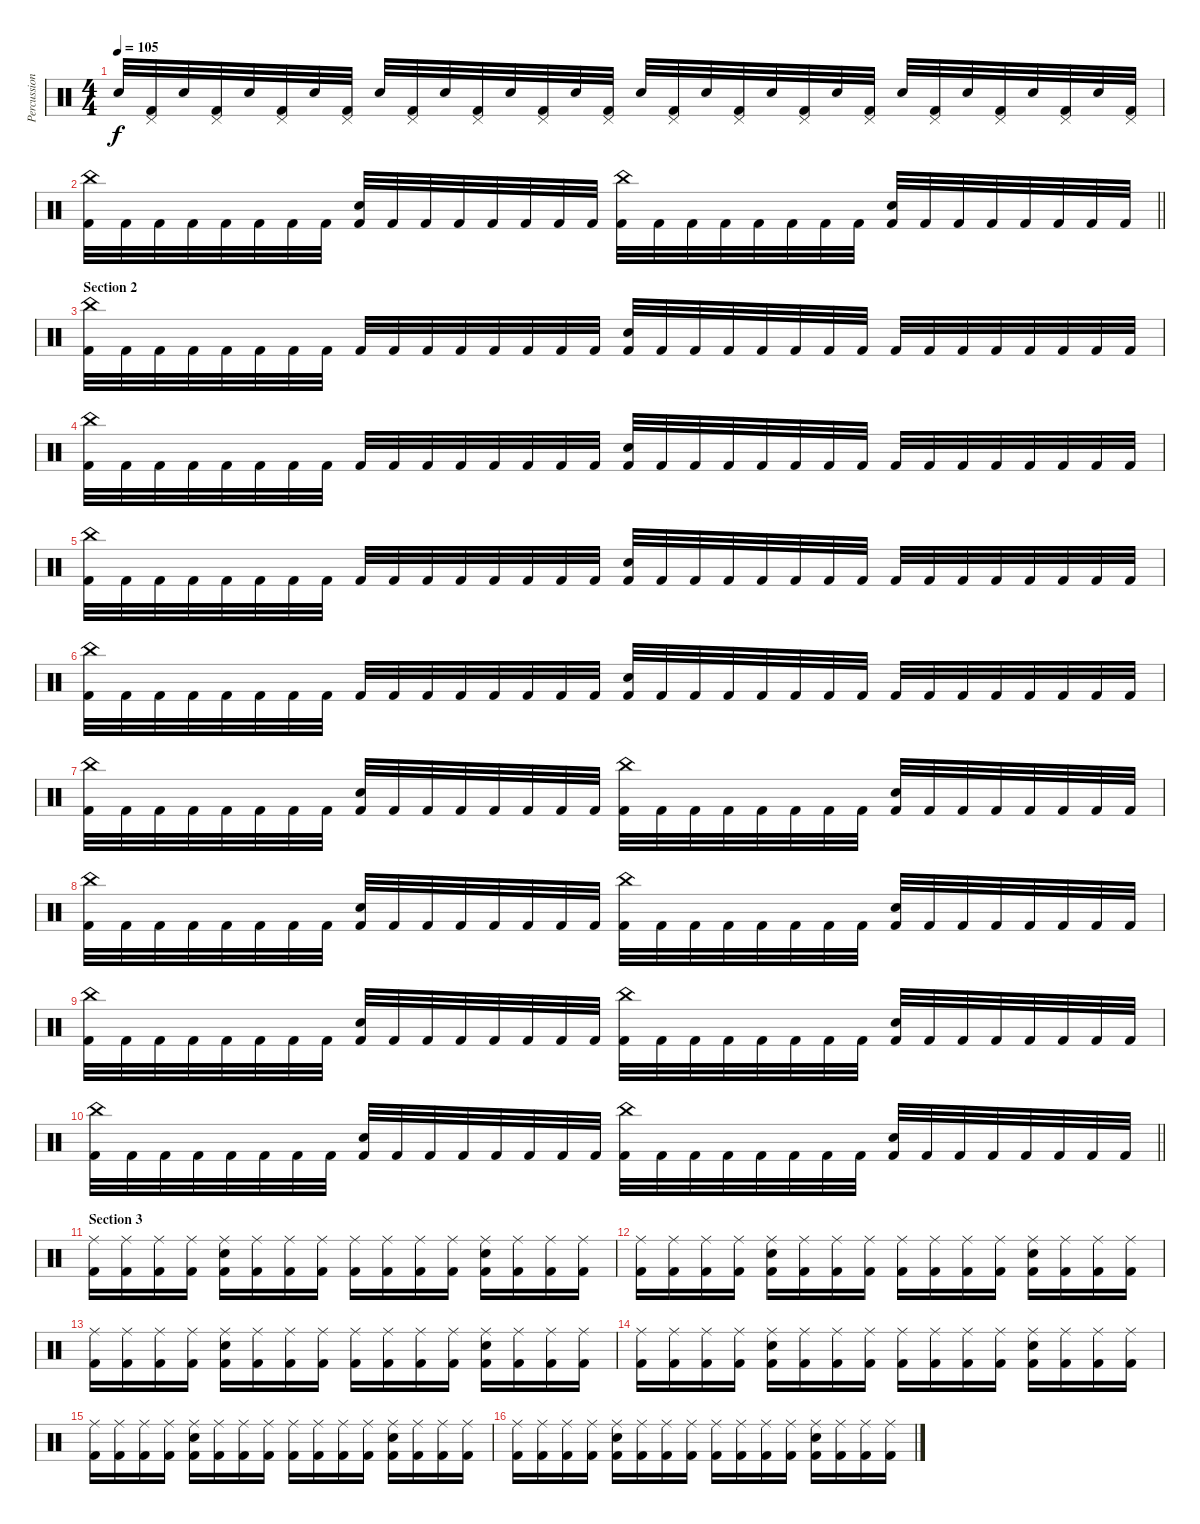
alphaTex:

\track ("Percussions" "Percussion") {instrument percussion}
\staff {score}
\articulation defaults
\ts (4 4)
\tempo 105
\clef neutral
\ks c "Electric Snare (hit)".32{dy f}
("Pedal Hi-Hat (hit)" "Kick (hit) 2").32 "Electric Snare (hit)".32 ("Pedal Hi-Hat (hit)" "Kick (hit) 2").32 "Electric Snare (hit)".32 ("Pedal Hi-Hat (hit)" "Kick (hit) 2").32 "Electric Snare (hit)".32 ("Pedal Hi-Hat (hit)" "Kick (hit) 2").32 "Electric Snare (hit)".32 ("Pedal Hi-Hat (hit)" "Kick (hit) 2").32 "Electric Snare (hit)".32 ("Pedal Hi-Hat (hit)" "Kick (hit) 2").32 "Electric Snare (hit)".32 ("Pedal Hi-Hat (hit)" "Kick (hit) 2").32 "Electric Snare (hit)".32 ("Pedal Hi-Hat (hit)" "Kick (hit) 2").32 "Electric Snare (hit)".32 ("Pedal Hi-Hat (hit)" "Kick (hit) 2").32 "Electric Snare (hit)".32 ("Pedal Hi-Hat (hit)" "Kick (hit) 2").32 "Electric Snare (hit)".32 ("Pedal Hi-Hat (hit)" "Kick (hit) 2").32 "Electric Snare (hit)".32 ("Pedal Hi-Hat (hit)" "Kick (hit) 2").32 "Electric Snare (hit)".32 ("Pedal Hi-Hat (hit)" "Kick (hit) 2").32 "Electric Snare (hit)".32 ("Pedal Hi-Hat (hit)" "Kick (hit) 2").32 "Electric Snare (hit)".32 ("Pedal Hi-Hat (hit)" "Kick (hit) 2").32 "Electric Snare (hit)".32 ("Pedal Hi-Hat (hit)" "Kick (hit) 2").32 |
\barLineRight lightlight
("China (hit)" "Kick (hit) 2").32 "Kick (hit) 2".32 "Kick (hit) 2".32 "Kick (hit) 2".32 "Kick (hit) 2".32 "Kick (hit) 2".32 "Kick (hit) 2".32 "Kick (hit) 2".32 ("Electric Snare (hit)" "Kick (hit) 2").32 "Kick (hit) 2".32 "Kick (hit) 2".32 "Kick (hit) 2".32 "Kick (hit) 2".32 "Kick (hit) 2".32 "Kick (hit) 2".32 "Kick (hit) 2".32 ("China (hit)" "Kick (hit) 2").32 "Kick (hit) 2".32 "Kick (hit) 2".32 "Kick (hit) 2".32 "Kick (hit) 2".32 "Kick (hit) 2".32 "Kick (hit) 2".32 "Kick (hit) 2".32 ("Electric Snare (hit)" "Kick (hit) 2").32 "Kick (hit) 2".32 "Kick (hit) 2".32 "Kick (hit) 2".32 "Kick (hit) 2".32 "Kick (hit) 2".32 "Kick (hit) 2".32 "Kick (hit) 2".32 |
\section ("" "Section 2")
("China (hit)" "Kick (hit) 2").32 "Kick (hit) 2".32 "Kick (hit) 2".32 "Kick (hit) 2".32 "Kick (hit) 2".32 "Kick (hit) 2".32 "Kick (hit) 2".32 "Kick (hit) 2".32 "Kick (hit) 2".32 "Kick (hit) 2".32 "Kick (hit) 2".32 "Kick (hit) 2".32 "Kick (hit) 2".32 "Kick (hit) 2".32 "Kick (hit) 2".32 "Kick (hit) 2".32 ("Electric Snare (hit)" "Kick (hit) 2").32 "Kick (hit) 2".32 "Kick (hit) 2".32 "Kick (hit) 2".32 "Kick (hit) 2".32 "Kick (hit) 2".32 "Kick (hit) 2".32 "Kick (hit) 2".32 "Kick (hit) 2".32 "Kick (hit) 2".32 "Kick (hit) 2".32 "Kick (hit) 2".32 "Kick (hit) 2".32 "Kick (hit) 2".32 "Kick (hit) 2".32 "Kick (hit) 2".32 |
("China (hit)" "Kick (hit) 2").32 "Kick (hit) 2".32 "Kick (hit) 2".32 "Kick (hit) 2".32 "Kick (hit) 2".32 "Kick (hit) 2".32 "Kick (hit) 2".32 "Kick (hit) 2".32 "Kick (hit) 2".32 "Kick (hit) 2".32 "Kick (hit) 2".32 "Kick (hit) 2".32 "Kick (hit) 2".32 "Kick (hit) 2".32 "Kick (hit) 2".32 "Kick (hit) 2".32 ("Electric Snare (hit)" "Kick (hit) 2").32 "Kick (hit) 2".32 "Kick (hit) 2".32 "Kick (hit) 2".32 "Kick (hit) 2".32 "Kick (hit) 2".32 "Kick (hit) 2".32 "Kick (hit) 2".32 "Kick (hit) 2".32 "Kick (hit) 2".32 "Kick (hit) 2".32 "Kick (hit) 2".32 "Kick (hit) 2".32 "Kick (hit) 2".32 "Kick (hit) 2".32 "Kick (hit) 2".32 |
("China (hit)" "Kick (hit) 2").32 "Kick (hit) 2".32 "Kick (hit) 2".32 "Kick (hit) 2".32 "Kick (hit) 2".32 "Kick (hit) 2".32 "Kick (hit) 2".32 "Kick (hit) 2".32 "Kick (hit) 2".32 "Kick (hit) 2".32 "Kick (hit) 2".32 "Kick (hit) 2".32 "Kick (hit) 2".32 "Kick (hit) 2".32 "Kick (hit) 2".32 "Kick (hit) 2".32 ("Electric Snare (hit)" "Kick (hit) 2").32 "Kick (hit) 2".32 "Kick (hit) 2".32 "Kick (hit) 2".32 "Kick (hit) 2".32 "Kick (hit) 2".32 "Kick (hit) 2".32 "Kick (hit) 2".32 "Kick (hit) 2".32 "Kick (hit) 2".32 "Kick (hit) 2".32 "Kick (hit) 2".32 "Kick (hit) 2".32 "Kick (hit) 2".32 "Kick (hit) 2".32 "Kick (hit) 2".32 |
("China (hit)" "Kick (hit) 2").32 "Kick (hit) 2".32 "Kick (hit) 2".32 "Kick (hit) 2".32 "Kick (hit) 2".32 "Kick (hit) 2".32 "Kick (hit) 2".32 "Kick (hit) 2".32 "Kick (hit) 2".32 "Kick (hit) 2".32 "Kick (hit) 2".32 "Kick (hit) 2".32 "Kick (hit) 2".32 "Kick (hit) 2".32 "Kick (hit) 2".32 "Kick (hit) 2".32 ("Electric Snare (hit)" "Kick (hit) 2").32 "Kick (hit) 2".32 "Kick (hit) 2".32 "Kick (hit) 2".32 "Kick (hit) 2".32 "Kick (hit) 2".32 "Kick (hit) 2".32 "Kick (hit) 2".32 "Kick (hit) 2".32 "Kick (hit) 2".32 "Kick (hit) 2".32 "Kick (hit) 2".32 "Kick (hit) 2".32 "Kick (hit) 2".32 "Kick (hit) 2".32 "Kick (hit) 2".32 |
("China (hit)" "Kick (hit) 2").32 "Kick (hit) 2".32 "Kick (hit) 2".32 "Kick (hit) 2".32 "Kick (hit) 2".32 "Kick (hit) 2".32 "Kick (hit) 2".32 "Kick (hit) 2".32 ("Electric Snare (hit)" "Kick (hit) 2").32 "Kick (hit) 2".32 "Kick (hit) 2".32 "Kick (hit) 2".32 "Kick (hit) 2".32 "Kick (hit) 2".32 "Kick (hit) 2".32 "Kick (hit) 2".32 ("China (hit)" "Kick (hit) 2").32 "Kick (hit) 2".32 "Kick (hit) 2".32 "Kick (hit) 2".32 "Kick (hit) 2".32 "Kick (hit) 2".32 "Kick (hit) 2".32 "Kick (hit) 2".32 ("Electric Snare (hit)" "Kick (hit) 2").32 "Kick (hit) 2".32 "Kick (hit) 2".32 "Kick (hit) 2".32 "Kick (hit) 2".32 "Kick (hit) 2".32 "Kick (hit) 2".32 "Kick (hit) 2".32 |
("China (hit)" "Kick (hit) 2").32 "Kick (hit) 2".32 "Kick (hit) 2".32 "Kick (hit) 2".32 "Kick (hit) 2".32 "Kick (hit) 2".32 "Kick (hit) 2".32 "Kick (hit) 2".32 ("Electric Snare (hit)" "Kick (hit) 2").32 "Kick (hit) 2".32 "Kick (hit) 2".32 "Kick (hit) 2".32 "Kick (hit) 2".32 "Kick (hit) 2".32 "Kick (hit) 2".32 "Kick (hit) 2".32 ("China (hit)" "Kick (hit) 2").32 "Kick (hit) 2".32 "Kick (hit) 2".32 "Kick (hit) 2".32 "Kick (hit) 2".32 "Kick (hit) 2".32 "Kick (hit) 2".32 "Kick (hit) 2".32 ("Electric Snare (hit)" "Kick (hit) 2").32 "Kick (hit) 2".32 "Kick (hit) 2".32 "Kick (hit) 2".32 "Kick (hit) 2".32 "Kick (hit) 2".32 "Kick (hit) 2".32 "Kick (hit) 2".32 |
("China (hit)" "Kick (hit) 2").32 "Kick (hit) 2".32 "Kick (hit) 2".32 "Kick (hit) 2".32 "Kick (hit) 2".32 "Kick (hit) 2".32 "Kick (hit) 2".32 "Kick (hit) 2".32 ("Electric Snare (hit)" "Kick (hit) 2").32 "Kick (hit) 2".32 "Kick (hit) 2".32 "Kick (hit) 2".32 "Kick (hit) 2".32 "Kick (hit) 2".32 "Kick (hit) 2".32 "Kick (hit) 2".32 ("China (hit)" "Kick (hit) 2").32 "Kick (hit) 2".32 "Kick (hit) 2".32 "Kick (hit) 2".32 "Kick (hit) 2".32 "Kick (hit) 2".32 "Kick (hit) 2".32 "Kick (hit) 2".32 ("Electric Snare (hit)" "Kick (hit) 2").32 "Kick (hit) 2".32 "Kick (hit) 2".32 "Kick (hit) 2".32 "Kick (hit) 2".32 "Kick (hit) 2".32 "Kick (hit) 2".32 "Kick (hit) 2".32 |
\barLineRight lightlight
("China (hit)" "Kick (hit) 2").32 "Kick (hit) 2".32 "Kick (hit) 2".32 "Kick (hit) 2".32 "Kick (hit) 2".32 "Kick (hit) 2".32 "Kick (hit) 2".32 "Kick (hit) 2".32 ("Electric Snare (hit)" "Kick (hit) 2").32 "Kick (hit) 2".32 "Kick (hit) 2".32 "Kick (hit) 2".32 "Kick (hit) 2".32 "Kick (hit) 2".32 "Kick (hit) 2".32 "Kick (hit) 2".32 ("China (hit)" "Kick (hit) 2").32 "Kick (hit) 2".32 "Kick (hit) 2".32 "Kick (hit) 2".32 "Kick (hit) 2".32 "Kick (hit) 2".32 "Kick (hit) 2".32 "Kick (hit) 2".32 ("Electric Snare (hit)" "Kick (hit) 2").32 "Kick (hit) 2".32 "Kick (hit) 2".32 "Kick (hit) 2".32 "Kick (hit) 2".32 "Kick (hit) 2".32 "Kick (hit) 2".32 "Kick (hit) 2".32 |
\section ("" "Section 3")
("Ride (middle)" "Kick (hit) 2").16 ("Ride (middle)" "Kick (hit) 2").16 ("Ride (middle)" "Kick (hit) 2").16 ("Ride (middle)" "Kick (hit) 2").16 ("Ride (middle)" "Electric Snare (hit)" "Kick (hit) 2").16 ("Ride (middle)" "Kick (hit) 2").16 ("Ride (middle)" "Kick (hit) 2").16 ("Ride (middle)" "Kick (hit) 2").16 ("Ride (middle)" "Kick (hit) 2").16 ("Ride (middle)" "Kick (hit) 2").16 ("Ride (middle)" "Kick (hit) 2").16 ("Ride (middle)" "Kick (hit) 2").16 ("Ride (middle)" "Electric Snare (hit)" "Kick (hit) 2").16 ("Ride (middle)" "Kick (hit) 2").16 ("Ride (middle)" "Kick (hit) 2").16 ("Ride (middle)" "Kick (hit) 2").16 |
("Ride (middle)" "Kick (hit) 2").16 ("Ride (middle)" "Kick (hit) 2").16 ("Ride (middle)" "Kick (hit) 2").16 ("Ride (middle)" "Kick (hit) 2").16 ("Ride (middle)" "Electric Snare (hit)" "Kick (hit) 2").16 ("Ride (middle)" "Kick (hit) 2").16 ("Ride (middle)" "Kick (hit) 2").16 ("Ride (middle)" "Kick (hit) 2").16 ("Ride (middle)" "Kick (hit) 2").16 ("Ride (middle)" "Kick (hit) 2").16 ("Ride (middle)" "Kick (hit) 2").16 ("Ride (middle)" "Kick (hit) 2").16 ("Ride (middle)" "Electric Snare (hit)" "Kick (hit) 2").16 ("Ride (middle)" "Kick (hit) 2").16 ("Ride (middle)" "Kick (hit) 2").16 ("Ride (middle)" "Kick (hit) 2").16 |
("Ride (middle)" "Kick (hit) 2").16 ("Ride (middle)" "Kick (hit) 2").16 ("Ride (middle)" "Kick (hit) 2").16 ("Ride (middle)" "Kick (hit) 2").16 ("Ride (middle)" "Electric Snare (hit)" "Kick (hit) 2").16 ("Ride (middle)" "Kick (hit) 2").16 ("Ride (middle)" "Kick (hit) 2").16 ("Ride (middle)" "Kick (hit) 2").16 ("Ride (middle)" "Kick (hit) 2").16 ("Ride (middle)" "Kick (hit) 2").16 ("Ride (middle)" "Kick (hit) 2").16 ("Ride (middle)" "Kick (hit) 2").16 ("Ride (middle)" "Electric Snare (hit)" "Kick (hit) 2").16 ("Ride (middle)" "Kick (hit) 2").16 ("Ride (middle)" "Kick (hit) 2").16 ("Ride (middle)" "Kick (hit) 2").16 |
("Ride (middle)" "Kick (hit) 2").16 ("Ride (middle)" "Kick (hit) 2").16 ("Ride (middle)" "Kick (hit) 2").16 ("Ride (middle)" "Kick (hit) 2").16 ("Ride (middle)" "Electric Snare (hit)" "Kick (hit) 2").16 ("Ride (middle)" "Kick (hit) 2").16 ("Ride (middle)" "Kick (hit) 2").16 ("Ride (middle)" "Kick (hit) 2").16 ("Ride (middle)" "Kick (hit) 2").16 ("Ride (middle)" "Kick (hit) 2").16 ("Ride (middle)" "Kick (hit) 2").16 ("Ride (middle)" "Kick (hit) 2").16 ("Ride (middle)" "Electric Snare (hit)" "Kick (hit) 2").16 ("Ride (middle)" "Kick (hit) 2").16 ("Ride (middle)" "Kick (hit) 2").16 ("Ride (middle)" "Kick (hit) 2").16 |
("Ride (middle)" "Kick (hit) 2").16 ("Ride (middle)" "Kick (hit) 2").16 ("Ride (middle)" "Kick (hit) 2").16 ("Ride (middle)" "Kick (hit) 2").16 ("Ride (middle)" "Electric Snare (hit)" "Kick (hit) 2").16 ("Ride (middle)" "Kick (hit) 2").16 ("Ride (middle)" "Kick (hit) 2").16 ("Ride (middle)" "Kick (hit) 2").16 ("Ride (middle)" "Kick (hit) 2").16 ("Ride (middle)" "Kick (hit) 2").16 ("Ride (middle)" "Kick (hit) 2").16 ("Ride (middle)" "Kick (hit) 2").16 ("Ride (middle)" "Electric Snare (hit)" "Kick (hit) 2").16 ("Ride (middle)" "Kick (hit) 2").16 ("Ride (middle)" "Kick (hit) 2").16 ("Ride (middle)" "Kick (hit) 2").16 |
("Ride (middle)" "Kick (hit) 2").16 ("Ride (middle)" "Kick (hit) 2").16 ("Ride (middle)" "Kick (hit) 2").16 ("Ride (middle)" "Kick (hit) 2").16 ("Ride (middle)" "Electric Snare (hit)" "Kick (hit) 2").16 ("Ride (middle)" "Kick (hit) 2").16 ("Ride (middle)" "Kick (hit) 2").16 ("Ride (middle)" "Kick (hit) 2").16 ("Ride (middle)" "Kick (hit) 2").16 ("Ride (middle)" "Kick (hit) 2").16 ("Ride (middle)" "Kick (hit) 2").16 ("Ride (middle)" "Kick (hit) 2").16 ("Ride (middle)" "Electric Snare (hit)" "Kick (hit) 2").16 ("Ride (middle)" "Kick (hit) 2").16 ("Ride (middle)" "Kick (hit) 2").16 ("Ride (middle)" "Kick (hit) 2").16
